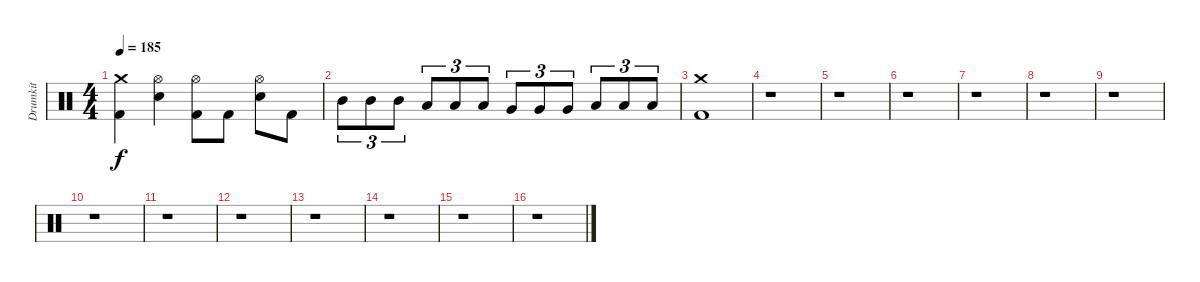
\track ("Drumkit" "Drumkit") {instrument percussion}
\staff {score}
\articulation defaults
\ts (4 4)
\tempo 185
\clef neutral
\ks c
("Crash medium (hit)" "Kick (hit) 2").4{dy f} ("Hi-Hat (open)" "Snare (hit) 2").4 ("Hi-Hat (open)" "Kick (hit) 2").8 "Kick (hit) 2".8 ("Hi-Hat (open)" "Snare (hit) 2").8 "Kick (hit) 2".8 |
"Mid Tom (hit)".8{tu (3 2)} "Mid Tom (hit)".8{tu (3 2)} "Mid Tom (hit)".8{tu (3 2)} "Low Tom (hit)".8{tu (3 2)} "Low Tom (hit)".8{tu (3 2)} "Low Tom (hit)".8{tu (3 2)} "Very Low Tom (hit)".8{tu (3 2)} "Very Low Tom (hit)".8{tu (3 2)} "Very Low Tom (hit)".8{tu (3 2)} "Low Floor Tom (hit)".8{tu (3 2)} "Low Floor Tom (hit)".8{tu (3 2)} "Low Floor Tom (hit)".8{tu (3 2)} |
("Crash medium (hit)" "Kick (hit) 2").1 |
r.1 |
r.1 |
r.1 |
r.1 |
r.1 |
r.1 |
r.1 |
r.1 |
r.1 |
r.1 |
r.1 |
r.1 |
r.1
